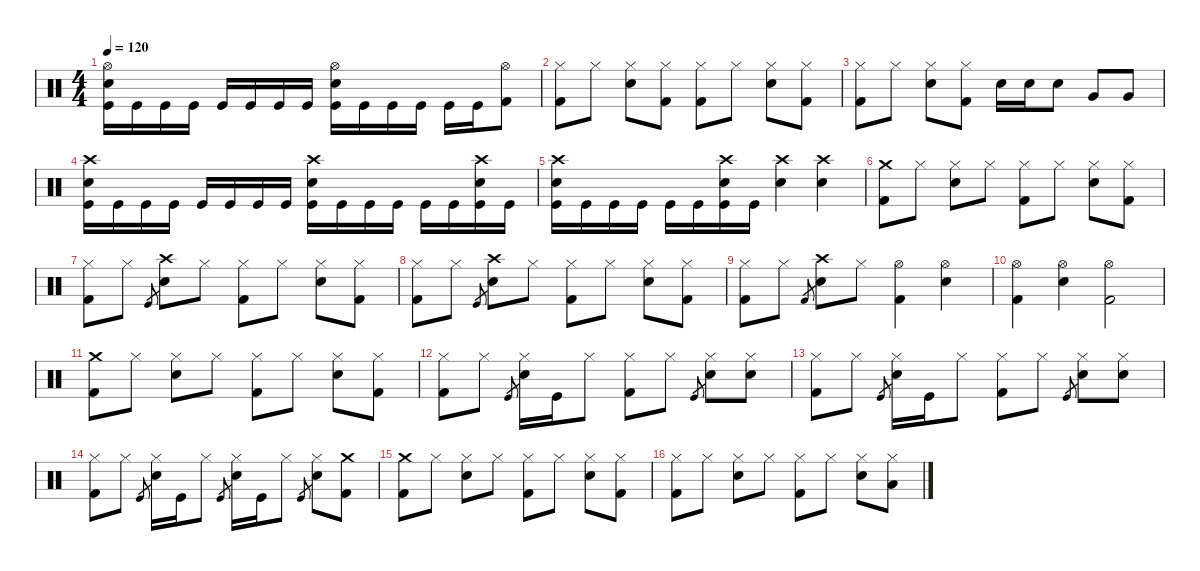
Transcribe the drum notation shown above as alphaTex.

\defaultSystemsLayout 4
\hideDynamics
\bracketExtendMode nobrackets
\singleTrackTrackNamePolicy hidden
\multiTrackTrackNamePolicy hidden
\otherSystemsTrackNameOrientation horizontal
\track ("Ulrich" "drm.") {instrument percussion}
\staff {score}
\articulation defaults
\ts (4 4)
\tempo 120
\clef neutral
\ks c
("Hi-Hat (open)" "Kick (hit)" "Snare (hit) 2").16{dy f beam Down} "Kick (hit)".16{dy fff beam Down} "Kick (hit)".16{beam Down} "Kick (hit)".16{beam Down} "Kick (hit)".16{beam Up} "Kick (hit)".16{beam Up} "Kick (hit)".16{beam Up} "Kick (hit)".16{beam Up} ("Hi-Hat (open)" "Kick (hit)" "Snare (hit) 2").16{dy f beam Down} "Kick (hit)".16{dy fff beam Down} "Kick (hit)".16{beam Down} "Kick (hit)".16{beam Down} "Kick (hit)".16{beam Down} "Kick (hit)".16{beam Down} ("Hi-Hat (open)" "Kick (hit) 2").8{dy f beam Down} |
("Hi-Hat (closed)" "Kick (hit) 2").8{beam Down} "Hi-Hat (closed)".8{beam Down} ("Hi-Hat (closed)" "Snare (hit) 2").8{beam Down} ("Hi-Hat (closed)" "Kick (hit) 2").8{beam Down} ("Hi-Hat (closed)" "Kick (hit) 2").8{beam Down} "Hi-Hat (closed)".8{beam Down} ("Hi-Hat (closed)" "Snare (hit) 2").8{beam Down} ("Hi-Hat (closed)" "Kick (hit) 2").8{beam Down} |
("Hi-Hat (closed)" "Kick (hit) 2").8{beam Down} "Hi-Hat (closed)".8{beam Down} ("Hi-Hat (closed)" "Snare (hit) 2").8{beam Down} ("Hi-Hat (closed)" "Kick (hit) 2").8{beam Down} "Snare (hit) 2".16{beam Down} "Snare (hit) 2".16{beam Down} "Snare (hit) 2".8{beam Down} "Very Low Tom (hit)".8{beam Up} "Very Low Tom (hit)".8{beam Up} |
("Crash high (hit)" "Kick (hit)" "Snare (hit) 2").16{beam Down} "Kick (hit)".16{dy fff beam Down} "Kick (hit)".16{beam Down} "Kick (hit)".16{beam Down} "Kick (hit)".16{beam Up} "Kick (hit)".16{beam Up} "Kick (hit)".16{beam Up} "Kick (hit)".16{beam Up} ("Crash high (hit)" "Kick (hit)" "Snare (hit) 2").16{dy f beam Down} "Kick (hit)".16{dy fff beam Down} "Kick (hit)".16{beam Down} "Kick (hit)".16{beam Down} "Kick (hit)".16{beam Down} "Kick (hit)".16{beam Down} ("Crash high (hit)" "Kick (hit)" "Snare (hit) 2").16{dy f beam Down} "Kick (hit)".16{dy fff beam Down} |
("Crash high (hit)" "Kick (hit)" "Snare (hit) 2").16{dy f beam Down} "Kick (hit)".16{dy fff beam Down} "Kick (hit)".16{beam Down} "Kick (hit)".16{beam Down} "Kick (hit)".16{beam Down} "Kick (hit)".16{beam Down} ("Crash high (hit)" "Kick (hit)" "Snare (hit) 2").16{dy f beam Down} "Kick (hit)".16{dy fff beam Down} ("Crash high (hit)" "Snare (hit) 2").4{dy f beam Down} ("Crash high (hit)" "Snare (hit) 2").4{beam Down} |
("Crash medium (hit)" "Kick (hit) 2").8{beam Down} "Hi-Hat (closed)".8{beam Down} ("Hi-Hat (closed)" "Snare (hit) 2").8{beam Down} "Hi-Hat (closed)".8{beam Down} ("Hi-Hat (closed)" "Kick (hit) 2").8{beam Down} "Hi-Hat (closed)".8{beam Down} ("Hi-Hat (closed)" "Snare (hit) 2").8{beam Down} ("Hi-Hat (closed)" "Kick (hit) 2").8{beam Down} |
("Hi-Hat (closed)" "Kick (hit) 2").8{beam Down} "Hi-Hat (closed)".8{beam Down} "Kick (hit)".8{gr dy mf beam Up} ("Crash high (hit)" "Snare (hit) 2").8{dy f beam Down} "Hi-Hat (closed)".8{beam Down} ("Hi-Hat (closed)" "Kick (hit) 2").8{beam Down} "Hi-Hat (closed)".8{beam Down} ("Hi-Hat (closed)" "Snare (hit) 2").8{beam Down} ("Hi-Hat (closed)" "Kick (hit) 2").8{beam Down} |
("Hi-Hat (closed)" "Kick (hit) 2").8{beam Down} "Hi-Hat (closed)".8{beam Down} "Kick (hit)".8{gr dy ff beam Up} ("Crash high (hit)" "Snare (hit) 2").8{dy f beam Down} "Hi-Hat (closed)".8{beam Down} ("Hi-Hat (closed)" "Kick (hit) 2").8{beam Down} "Hi-Hat (closed)".8{beam Down} ("Hi-Hat (closed)" "Snare (hit) 2").8{beam Down} ("Hi-Hat (closed)" "Kick (hit) 2").8{beam Down} |
("Hi-Hat (closed)" "Kick (hit) 2").8{beam Down} "Hi-Hat (closed)".8{beam Down} "Kick (hit) 2".8{gr dy mf beam Up} ("Crash high (hit)" "Snare (hit) 2").8{dy f beam Down} "Hi-Hat (closed)".8{beam Down} ("Hi-Hat (open)" "Kick (hit) 2").4{beam Down} ("Hi-Hat (open)" "Snare (hit) 2").4{beam Down} |
("Hi-Hat (open)" "Kick (hit) 2").4{beam Down} ("Hi-Hat (open)" "Snare (hit) 2").4{beam Down} ("Hi-Hat (open)" "Kick (hit) 2").2{beam Down} |
("Crash medium (hit)" "Kick (hit) 2").8{beam Down} "Hi-Hat (closed)".8{beam Down} ("Hi-Hat (closed)" "Snare (hit) 2").8{beam Down} "Hi-Hat (closed)".8{beam Down} ("Hi-Hat (closed)" "Kick (hit) 2").8{beam Down} "Hi-Hat (closed)".8{beam Down} ("Hi-Hat (closed)" "Snare (hit) 2").8{beam Down} ("Hi-Hat (closed)" "Kick (hit) 2").8{beam Down} |
("Hi-Hat (closed)" "Kick (hit) 2").8{beam Down} "Hi-Hat (closed)".8{beam Down} "Kick (hit)".8{gr dy ff beam Up} ("Hi-Hat (closed)" "Snare (hit) 2").16{dy f beam Down} "Kick (hit)".16{dy fff beam Down} "Hi-Hat (closed)".8{dy f beam Down} ("Hi-Hat (closed)" "Kick (hit) 2").8{beam Down} "Hi-Hat (closed)".8{beam Down} "Kick (hit)".8{gr dy ff beam Up} ("Hi-Hat (closed)" "Snare (hit) 2").8{dy f beam Down} ("Hi-Hat (closed)" "Snare (hit) 2").8{beam Down} |
("Hi-Hat (closed)" "Kick (hit) 2").8{beam Down} "Hi-Hat (closed)".8{beam Down} "Kick (hit)".8{gr dy ff beam Up} ("Hi-Hat (closed)" "Snare (hit) 2").16{dy f beam Down} "Kick (hit)".16{dy fff beam Down} "Hi-Hat (closed)".8{dy f beam Down} ("Hi-Hat (closed)" "Kick (hit) 2").8{beam Down} "Hi-Hat (closed)".8{beam Down} "Kick (hit)".8{gr dy ff beam Up} ("Hi-Hat (closed)" "Snare (hit) 2").8{dy f beam Down} ("Hi-Hat (closed)" "Snare (hit) 2").8{beam Down} |
("Hi-Hat (closed)" "Kick (hit) 2").8{beam Down} "Hi-Hat (closed)".8{beam Down} "Kick (hit)".8{gr dy ff beam Up} ("Hi-Hat (closed)" "Snare (hit) 2").16{dy f beam Down} "Kick (hit)".16{dy fff beam Down} "Hi-Hat (closed)".8{dy f beam Down} "Kick (hit)".8{gr dy ff beam Up} ("Hi-Hat (closed)" "Snare (hit) 2").16{dy f beam Down} "Kick (hit)".16{beam Down} "Hi-Hat (closed)".8{beam Down} "Kick (hit)".8{gr dy ff beam Up} ("Hi-Hat (closed)" "Snare (hit) 2").8{dy f beam Down} ("Crash medium (hit)" "Kick (hit) 2").8{beam Down} |
("Crash medium (hit)" "Kick (hit) 2").8{beam Down} "Hi-Hat (closed)".8{beam Down} ("Hi-Hat (closed)" "Snare (hit) 2").8{beam Down} "Hi-Hat (closed)".8{beam Down} ("Hi-Hat (closed)" "Kick (hit) 2").8{beam Down} "Hi-Hat (closed)".8{beam Down} ("Hi-Hat (closed)" "Snare (hit) 2").8{beam Down} ("Hi-Hat (closed)" "Kick (hit) 2").8{beam Down} |
("Hi-Hat (closed)" "Kick (hit) 2").8{beam Down} "Hi-Hat (closed)".8{beam Down} ("Hi-Hat (closed)" "Snare (hit) 2").8{beam Down} "Hi-Hat (closed)".8{beam Down} ("Hi-Hat (closed)" "Kick (hit) 2").8{beam Down} "Hi-Hat (closed)".8{beam Down} ("Hi-Hat (closed)" "Snare (hit) 2").8{beam Down} ("Hi-Hat (closed)" "Low Tom (hit)").8{beam Down}
